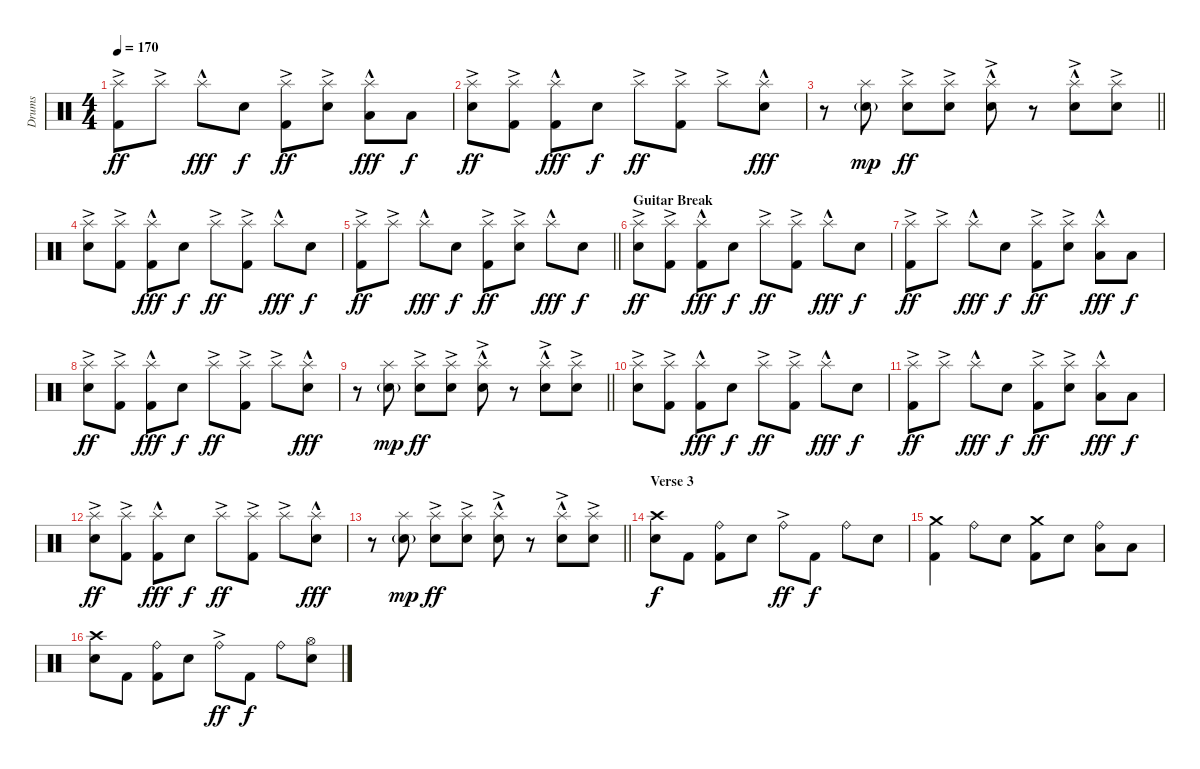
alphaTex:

\track ("Drums" "Drums") {instrument percussion}
\staff {score}
\articulation defaults
\ts (4 4)
\tempo 170
\clef neutral
\ks c
("Splash (hit)"{ac} "Kick (hit) 2").8{dy ff} "Splash (hit)"{ac}.8 "Splash (hit)"{hac}.8{dy fff} "Snare (hit) 2".8{dy f} ("Splash (hit)"{ac} "Kick (hit) 2").8{dy ff} ("Splash (hit)"{ac} "Electric Snare (hit)").8 ("Splash (hit)"{hac} "Low Tom (hit)").8{dy fff} "Low Tom (hit)".8{dy f} |
("Splash (hit)"{ac} "Snare (hit) 2").8{dy ff} ("Splash (hit)"{ac} "Kick (hit) 2").8 ("Splash (hit)"{hac} "Kick (hit) 2").8{dy fff} "Snare (hit) 2".8{dy f} "Splash (hit)"{ac}.8{dy ff} ("Splash (hit)"{ac} "Kick (hit) 2").8 "Splash (hit)"{ac}.8 ("Splash (hit)"{hac} "Snare (hit) 2").8{dy fff} |
\barLineRight lightlight
r.8 ("Splash (hit)" "Electric Snare (hit)"{g}).8{dy mp} ("Splash (hit)"{ac} "Electric Snare (hit)").8{dy ff} ("Splash (hit)"{ac} "Electric Snare (hit)").8 ("Splash (hit)"{hac} "Electric Snare (hit)"{ac}).8 r.8 ("Splash (hit)"{hac} "Electric Snare (hit)"{ac}).8 ("Splash (hit)"{ac} "Electric Snare (hit)").8 |
\section ("" "")
("Splash (hit)"{ac} "Snare (hit) 2").8 ("Splash (hit)"{ac} "Kick (hit) 2").8 ("Splash (hit)"{hac} "Kick (hit) 2").8{dy fff} "Snare (hit) 2".8{dy f} "Splash (hit)"{ac}.8{dy ff} ("Splash (hit)"{ac} "Kick (hit) 2").8 "Splash (hit)"{hac}.8{dy fff} "Snare (hit) 2".8{dy f} |
\barLineRight lightlight
("Splash (hit)"{ac} "Kick (hit) 2").8{dy ff} "Splash (hit)"{ac}.8 "Splash (hit)"{hac}.8{dy fff} "Snare (hit) 2".8{dy f} ("Splash (hit)"{ac} "Kick (hit) 2").8{dy ff} ("Splash (hit)"{ac} "Snare (hit) 2").8 "Splash (hit)"{hac}.8{dy fff} "Snare (hit) 2".8{dy f} |
\section ("" "Guitar Break")
("Splash (hit)"{ac} "Snare (hit) 2").8{dy ff} ("Splash (hit)"{ac} "Kick (hit) 2").8 ("Splash (hit)"{hac} "Kick (hit) 2").8{dy fff} "Snare (hit) 2".8{dy f} "Splash (hit)"{ac}.8{dy ff} ("Splash (hit)"{ac} "Kick (hit) 2").8 "Splash (hit)"{hac}.8{dy fff} "Snare (hit) 2".8{dy f} |
("Splash (hit)"{ac} "Kick (hit) 2").8{dy ff} "Splash (hit)"{ac}.8 "Splash (hit)"{hac}.8{dy fff} "Snare (hit) 2".8{dy f} ("Splash (hit)"{ac} "Kick (hit) 2").8{dy ff} ("Splash (hit)"{ac} "Electric Snare (hit)").8 ("Splash (hit)"{hac} "Low Tom (hit)").8{dy fff} "Low Tom (hit)".8{dy f} |
("Splash (hit)"{ac} "Snare (hit) 2").8{dy ff} ("Splash (hit)"{ac} "Kick (hit) 2").8 ("Splash (hit)"{hac} "Kick (hit) 2").8{dy fff} "Snare (hit) 2".8{dy f} "Splash (hit)"{ac}.8{dy ff} ("Splash (hit)"{ac} "Kick (hit) 2").8 "Splash (hit)"{ac}.8 ("Splash (hit)"{hac} "Snare (hit) 2").8{dy fff} |
\barLineRight lightlight
r.8 ("Splash (hit)" "Electric Snare (hit)"{g}).8{dy mp} ("Splash (hit)"{ac} "Electric Snare (hit)").8{dy ff} ("Splash (hit)"{ac} "Electric Snare (hit)").8 ("Splash (hit)"{hac} "Electric Snare (hit)"{ac}).8 r.8 ("Splash (hit)"{hac} "Electric Snare (hit)"{ac}).8 ("Splash (hit)"{ac} "Electric Snare (hit)").8 |
\section ("" "")
("Splash (hit)"{ac} "Snare (hit) 2").8 ("Splash (hit)"{ac} "Kick (hit) 2").8 ("Splash (hit)"{hac} "Kick (hit) 2").8{dy fff} "Snare (hit) 2".8{dy f} "Splash (hit)"{ac}.8{dy ff} ("Splash (hit)"{ac} "Kick (hit) 2").8 "Splash (hit)"{hac}.8{dy fff} "Snare (hit) 2".8{dy f} |
("Splash (hit)"{ac} "Kick (hit) 2").8{dy ff} "Splash (hit)"{ac}.8 "Splash (hit)"{hac}.8{dy fff} "Snare (hit) 2".8{dy f} ("Splash (hit)"{ac} "Kick (hit) 2").8{dy ff} ("Splash (hit)"{ac} "Electric Snare (hit)").8 ("Splash (hit)"{hac} "Low Tom (hit)").8{dy fff} "Low Tom (hit)".8{dy f} |
("Splash (hit)"{ac} "Snare (hit) 2").8{dy ff} ("Splash (hit)"{ac} "Kick (hit) 2").8 ("Splash (hit)"{hac} "Kick (hit) 2").8{dy fff} "Snare (hit) 2".8{dy f} "Splash (hit)"{ac}.8{dy ff} ("Splash (hit)"{ac} "Kick (hit) 2").8 "Splash (hit)"{ac}.8 ("Splash (hit)"{hac} "Snare (hit) 2").8{dy fff} |
\barLineRight lightlight
r.8 ("Splash (hit)" "Electric Snare (hit)"{g}).8{dy mp} ("Splash (hit)"{ac} "Electric Snare (hit)").8{dy ff} ("Splash (hit)"{ac} "Electric Snare (hit)").8 ("Splash (hit)"{hac} "Electric Snare (hit)"{ac}).8 r.8 ("Splash (hit)"{hac} "Electric Snare (hit)"{ac}).8 ("Splash (hit)"{ac} "Electric Snare (hit)").8 |
\section ("" "Verse 3")
("Crash high (hit)" "Snare (hit) 2").8{dy f} "Kick (hit) 2".8 ("Ride (bell)" "Kick (hit) 2").8 "Snare (hit) 2".8 "Ride (bell)"{ac}.8{dy ff} "Kick (hit) 2".8{dy f} "Ride (bell)".8 "Snare (hit) 2".8 |
("Crash medium (hit)" "Kick (hit) 2").4 "Ride (bell)".8 "Snare (hit) 2".8 ("Crash medium (hit)" "Kick (hit) 2").8 "Electric Snare (hit)".8 ("Ride (bell)" "Low Tom (hit)").8 "Low Tom (hit)".8 |
("Crash high (hit)" "Snare (hit) 2").8 "Kick (hit) 2".8 ("Ride (bell)" "Kick (hit) 2").8 "Snare (hit) 2".8 "Ride (bell)"{ac}.8{dy ff} "Kick (hit) 2".8{dy f} "Ride (bell)".8 ("Hi-Hat (open)" "Snare (hit) 2").8
